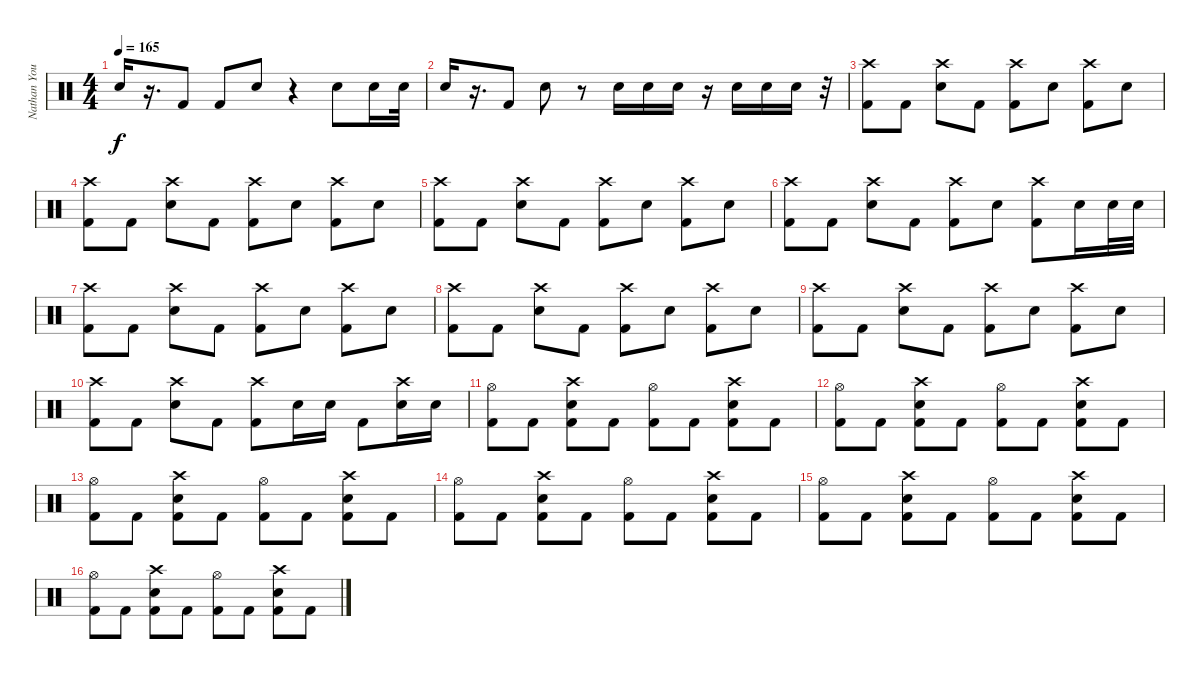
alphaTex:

\track ("Nathan Young" "Nathan You") {instrument percussion}
\staff {score}
\articulation defaults
\ts (4 4)
\tempo 165
\clef neutral
\ks c "Snare (hit) 2".16{dy f}
r.16{d} "Kick (hit) 2".8 "Kick (hit) 2".8 "Snare (hit) 2".8 r.4 "Snare (hit) 2".8 "Snare (hit) 2".16 "Snare (hit) 2".32 |
"Snare (hit) 2".16 r.16{d} "Kick (hit) 2".8 "Snare (hit) 2".8 r.8 "Snare (hit) 2".16 "Snare (hit) 2".16 "Snare (hit) 2".16 r.16 "Snare (hit) 2".16 "Snare (hit) 2".16 "Snare (hit) 2".16 r.32 |
("Crash high (hit)" "Kick (hit) 2").8 "Kick (hit) 2".8 ("Crash high (hit)" "Snare (hit) 2").8 "Kick (hit) 2".8 ("Crash high (hit)" "Kick (hit) 2").8 "Snare (hit) 2".8 ("Crash high (hit)" "Kick (hit) 2").8 "Snare (hit) 2".8 |
("Crash high (hit)" "Kick (hit) 2").8 "Kick (hit) 2".8 ("Crash high (hit)" "Snare (hit) 2").8 "Kick (hit) 2".8 ("Crash high (hit)" "Kick (hit) 2").8 "Snare (hit) 2".8 ("Crash high (hit)" "Kick (hit) 2").8 "Snare (hit) 2".8 |
("Crash high (hit)" "Kick (hit) 2").8 "Kick (hit) 2".8 ("Crash high (hit)" "Snare (hit) 2").8 "Kick (hit) 2".8 ("Crash high (hit)" "Kick (hit) 2").8 "Snare (hit) 2".8 ("Crash high (hit)" "Kick (hit) 2").8 "Snare (hit) 2".8 |
("Crash high (hit)" "Kick (hit) 2").8 "Kick (hit) 2".8 ("Crash high (hit)" "Snare (hit) 2").8 "Kick (hit) 2".8 ("Crash high (hit)" "Kick (hit) 2").8 "Snare (hit) 2".8 ("Crash high (hit)" "Kick (hit) 2").8 "Snare (hit) 2".16 "Snare (hit) 2".32 "Snare (hit) 2".32 |
("Crash high (hit)" "Kick (hit) 2").8 "Kick (hit) 2".8 ("Crash high (hit)" "Snare (hit) 2").8 "Kick (hit) 2".8 ("Crash high (hit)" "Kick (hit) 2").8 "Snare (hit) 2".8 ("Crash high (hit)" "Kick (hit) 2").8 "Snare (hit) 2".8 |
("Crash high (hit)" "Kick (hit) 2").8 "Kick (hit) 2".8 ("Crash high (hit)" "Snare (hit) 2").8 "Kick (hit) 2".8 ("Crash high (hit)" "Kick (hit) 2").8 "Snare (hit) 2".8 ("Crash high (hit)" "Kick (hit) 2").8 "Snare (hit) 2".8 |
("Crash high (hit)" "Kick (hit) 2").8 "Kick (hit) 2".8 ("Crash high (hit)" "Snare (hit) 2").8 "Kick (hit) 2".8 ("Crash high (hit)" "Kick (hit) 2").8 "Snare (hit) 2".8 ("Crash high (hit)" "Kick (hit) 2").8 "Snare (hit) 2".8 |
("Crash high (hit)" "Kick (hit) 2").8 "Kick (hit) 2".8 ("Crash high (hit)" "Snare (hit) 2").8 "Kick (hit) 2".8 ("Crash high (hit)" "Kick (hit) 2").8 "Snare (hit) 2".16 "Snare (hit) 2".16 "Kick (hit) 2".8 ("Crash high (hit)" "Snare (hit) 2").16 "Snare (hit) 2".16 |
("Hi-Hat (open)" "Kick (hit) 2").8 "Kick (hit) 2".8 ("Crash high (hit)" "Snare (hit) 2" "Kick (hit) 2").8 "Kick (hit) 2".8 ("Hi-Hat (open)" "Kick (hit) 2").8 "Kick (hit) 2".8 ("Crash high (hit)" "Snare (hit) 2" "Kick (hit) 2").8 "Kick (hit) 2".8 |
("Hi-Hat (open)" "Kick (hit) 2").8 "Kick (hit) 2".8 ("Crash high (hit)" "Snare (hit) 2" "Kick (hit) 2").8 "Kick (hit) 2".8 ("Hi-Hat (open)" "Kick (hit) 2").8 "Kick (hit) 2".8 ("Crash high (hit)" "Snare (hit) 2" "Kick (hit) 2").8 "Kick (hit) 2".8 |
("Hi-Hat (open)" "Kick (hit) 2").8 "Kick (hit) 2".8 ("Crash high (hit)" "Snare (hit) 2" "Kick (hit) 2").8 "Kick (hit) 2".8 ("Hi-Hat (open)" "Kick (hit) 2").8 "Kick (hit) 2".8 ("Crash high (hit)" "Snare (hit) 2" "Kick (hit) 2").8 "Kick (hit) 2".8 |
("Hi-Hat (open)" "Kick (hit) 2").8 "Kick (hit) 2".8 ("Crash high (hit)" "Snare (hit) 2" "Kick (hit) 2").8 "Kick (hit) 2".8 ("Hi-Hat (open)" "Kick (hit) 2").8 "Kick (hit) 2".8 ("Crash high (hit)" "Snare (hit) 2" "Kick (hit) 2").8 "Kick (hit) 2".8 |
("Hi-Hat (open)" "Kick (hit) 2").8 "Kick (hit) 2".8 ("Crash high (hit)" "Snare (hit) 2" "Kick (hit) 2").8 "Kick (hit) 2".8 ("Hi-Hat (open)" "Kick (hit) 2").8 "Kick (hit) 2".8 ("Crash high (hit)" "Snare (hit) 2" "Kick (hit) 2").8 "Kick (hit) 2".8 |
("Hi-Hat (open)" "Kick (hit) 2").8 "Kick (hit) 2".8 ("Crash high (hit)" "Snare (hit) 2" "Kick (hit) 2").8 "Kick (hit) 2".8 ("Hi-Hat (open)" "Kick (hit) 2").8 "Kick (hit) 2".8 ("Crash high (hit)" "Snare (hit) 2" "Kick (hit) 2").8 "Kick (hit) 2".8
